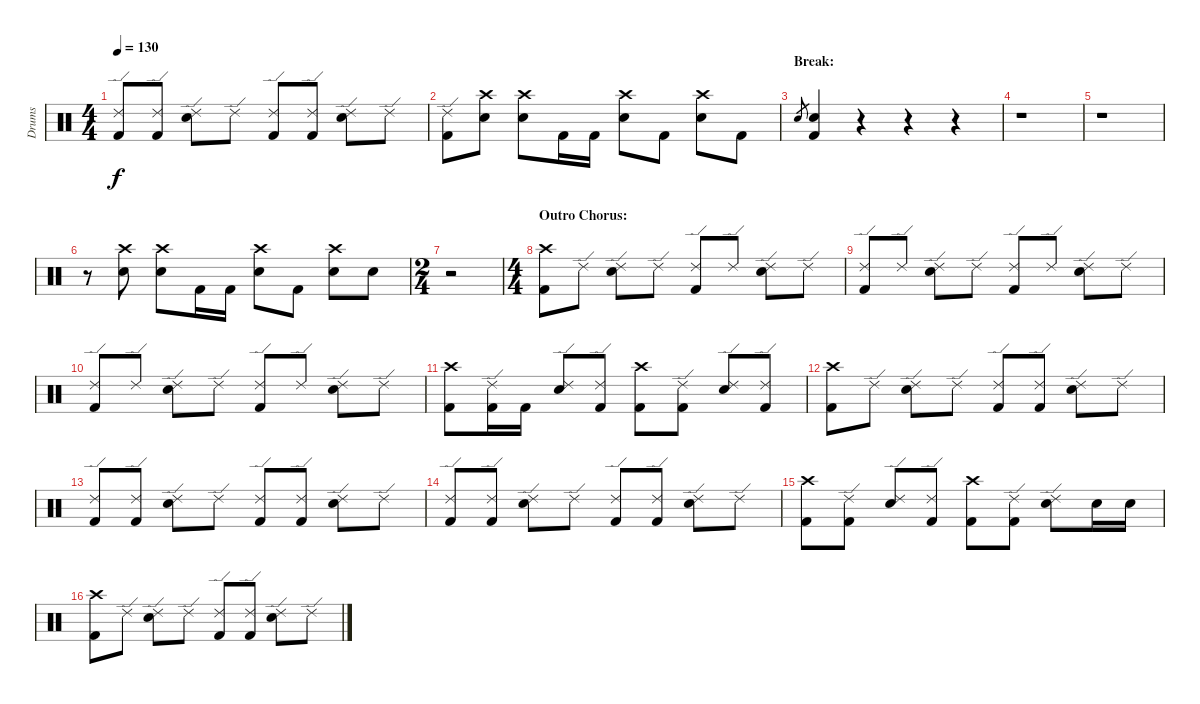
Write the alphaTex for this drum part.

\track ("Drums" "Drums") {instrument percussion}
\staff {score}
\articulation defaults
\ts (4 4)
\tempo 130
\clef neutral
\ks c
("Ride (edge) 2" "Kick (hit) 2").8{dy f} ("Ride (edge) 2" "Kick (hit) 2").8 ("Ride (edge) 2" "Electric Snare (hit)").8 "Ride (edge) 2".8 ("Ride (edge) 2" "Kick (hit) 2").8 ("Ride (edge) 2" "Kick (hit) 2").8 ("Ride (edge) 2" "Electric Snare (hit)").8 "Ride (edge) 2".8 |
("Ride (edge) 2" "Kick (hit) 2").8 ("Crash high (hit)" "Electric Snare (hit)").8 ("Crash high (hit)" "Electric Snare (hit)").8 "Kick (hit) 2".16 "Kick (hit) 2".16 ("Crash high (hit)" "Electric Snare (hit)").8 "Kick (hit) 2".8 ("Crash high (hit)" "Electric Snare (hit)").8 "Kick (hit) 2".8 |
\section ("" "Break:")
"Electric Snare (hit)".8{gr} ("Electric Snare (hit)" "Kick (hit) 2").4 r.4 r.4 r.4 |
r.1 |
r.1 |
r.8 ("Crash high (hit)" "Electric Snare (hit)").8 ("Crash high (hit)" "Electric Snare (hit)").8 "Kick (hit) 2".16 "Kick (hit) 2".16 ("Crash high (hit)" "Electric Snare (hit)").8 "Kick (hit) 2".8 ("Crash high (hit)" "Electric Snare (hit)").8 "Electric Snare (hit)".8 |
\ts (2 4)
r.2 |
\ts (4 4)
\section ("" "Outro Chorus:")
("Crash high (hit)" "Kick (hit) 2").8 "Ride (edge) 2".8 ("Ride (edge) 2" "Electric Snare (hit)").8 "Ride (edge) 2".8 ("Ride (edge) 2" "Kick (hit) 2").8 "Ride (edge) 2".8 ("Ride (edge) 2" "Electric Snare (hit)").8 "Ride (edge) 2".8 |
("Ride (edge) 2" "Kick (hit) 2").8 "Ride (edge) 2".8 ("Ride (edge) 2" "Electric Snare (hit)").8 "Ride (edge) 2".8 ("Ride (edge) 2" "Kick (hit) 2").8 "Ride (edge) 2".8 ("Ride (edge) 2" "Electric Snare (hit)").8 "Ride (edge) 2".8 |
("Ride (edge) 2" "Kick (hit) 2").8 "Ride (edge) 2".8 ("Ride (edge) 2" "Electric Snare (hit)").8 "Ride (edge) 2".8 ("Ride (edge) 2" "Kick (hit) 2").8 "Ride (edge) 2".8 ("Ride (edge) 2" "Electric Snare (hit)").8 "Ride (edge) 2".8 |
("Crash high (hit)" "Kick (hit) 2").8 ("Ride (edge) 2" "Kick (hit) 2").16 "Kick (hit) 2".16 ("Ride (edge) 2" "Electric Snare (hit)").8 ("Ride (edge) 2" "Kick (hit) 2").8 ("Crash high (hit)" "Kick (hit) 2").8 ("Ride (edge) 2" "Kick (hit) 2").8 ("Ride (edge) 2" "Electric Snare (hit)").8 ("Ride (edge) 2" "Kick (hit) 2").8 |
("Crash high (hit)" "Kick (hit) 2").8 "Ride (edge) 2".8 ("Ride (edge) 2" "Electric Snare (hit)").8 "Ride (edge) 2".8 ("Ride (edge) 2" "Kick (hit) 2").8 ("Ride (edge) 2" "Kick (hit) 2").8 ("Ride (edge) 2" "Electric Snare (hit)").8 "Ride (edge) 2".8 |
("Ride (edge) 2" "Kick (hit) 2").8 ("Ride (edge) 2" "Kick (hit) 2").8 ("Ride (edge) 2" "Electric Snare (hit)").8 "Ride (edge) 2".8 ("Ride (edge) 2" "Kick (hit) 2").8 ("Ride (edge) 2" "Kick (hit) 2").8 ("Ride (edge) 2" "Electric Snare (hit)").8 "Ride (edge) 2".8 |
("Ride (edge) 2" "Kick (hit) 2").8 ("Ride (edge) 2" "Kick (hit) 2").8 ("Ride (edge) 2" "Electric Snare (hit)").8 "Ride (edge) 2".8 ("Ride (edge) 2" "Kick (hit) 2").8 ("Ride (edge) 2" "Kick (hit) 2").8 ("Ride (edge) 2" "Electric Snare (hit)").8 "Ride (edge) 2".8 |
("Crash high (hit)" "Kick (hit) 2").8 ("Ride (edge) 2" "Kick (hit) 2").8 ("Ride (edge) 2" "Electric Snare (hit)").8 ("Ride (edge) 2" "Kick (hit) 2").8 ("Crash high (hit)" "Kick (hit) 2").8 ("Ride (edge) 2" "Kick (hit) 2").8 ("Ride (edge) 2" "Electric Snare (hit)").8 "Electric Snare (hit)".16 "Electric Snare (hit)".16 |
("Crash high (hit)" "Kick (hit) 2").8 "Ride (edge) 2".8 ("Ride (edge) 2" "Electric Snare (hit)").8 "Ride (edge) 2".8 ("Ride (edge) 2" "Kick (hit) 2").8 ("Ride (edge) 2" "Kick (hit) 2").8 ("Ride (edge) 2" "Electric Snare (hit)").8 "Ride (edge) 2".8
